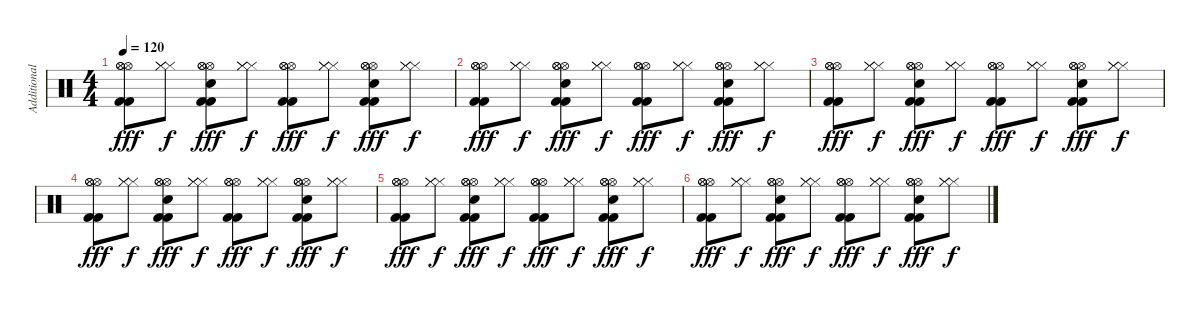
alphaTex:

\track ("Additional Rythm" "Additional") {instrument percussion}
\staff {score}
\articulation defaults
\ts (4 4)
\tempo 120
\clef neutral
\ks c
("Hi-Hat (open)" "Hi-Hat (open)" "Hi-Hat (open)" "Kick (hit) 2" "Kick (hit) 2").8{dy fff} ("Hi-Hat (closed)" "Hi-Hat (closed)" "Hi-Hat (closed)").8{dy f} ("Hi-Hat (open)" "Hi-Hat (open)" "Hi-Hat (open)" "Kick (hit) 2" "Kick (hit) 2" "Snare (hit) 2").8{dy fff} ("Hi-Hat (closed)" "Hi-Hat (closed)" "Hi-Hat (closed)").8{dy f} ("Hi-Hat (open)" "Hi-Hat (open)" "Hi-Hat (open)" "Kick (hit) 2" "Kick (hit) 2").8{dy fff} ("Hi-Hat (closed)" "Hi-Hat (closed)" "Hi-Hat (closed)").8{dy f} ("Hi-Hat (open)" "Hi-Hat (open)" "Hi-Hat (open)" "Kick (hit) 2" "Kick (hit) 2" "Snare (hit) 2").8{dy fff} ("Hi-Hat (closed)" "Hi-Hat (closed)" "Hi-Hat (closed)").8{dy f} |
("Hi-Hat (open)" "Hi-Hat (open)" "Hi-Hat (open)" "Kick (hit) 2" "Kick (hit) 2").8{dy fff} ("Hi-Hat (closed)" "Hi-Hat (closed)" "Hi-Hat (closed)").8{dy f} ("Hi-Hat (open)" "Hi-Hat (open)" "Hi-Hat (open)" "Kick (hit) 2" "Kick (hit) 2" "Snare (hit) 2").8{dy fff} ("Hi-Hat (closed)" "Hi-Hat (closed)" "Hi-Hat (closed)").8{dy f} ("Hi-Hat (open)" "Hi-Hat (open)" "Hi-Hat (open)" "Kick (hit) 2" "Kick (hit) 2").8{dy fff} ("Hi-Hat (closed)" "Hi-Hat (closed)" "Hi-Hat (closed)").8{dy f} ("Hi-Hat (open)" "Hi-Hat (open)" "Hi-Hat (open)" "Kick (hit) 2" "Kick (hit) 2" "Snare (hit) 2").8{dy fff} ("Hi-Hat (closed)" "Hi-Hat (closed)" "Hi-Hat (closed)").8{dy f} |
("Hi-Hat (open)" "Hi-Hat (open)" "Hi-Hat (open)" "Kick (hit) 2" "Kick (hit) 2").8{dy fff} ("Hi-Hat (closed)" "Hi-Hat (closed)" "Hi-Hat (closed)").8{dy f} ("Hi-Hat (open)" "Hi-Hat (open)" "Hi-Hat (open)" "Kick (hit) 2" "Kick (hit) 2" "Snare (hit) 2").8{dy fff} ("Hi-Hat (closed)" "Hi-Hat (closed)" "Hi-Hat (closed)").8{dy f} ("Hi-Hat (open)" "Hi-Hat (open)" "Hi-Hat (open)" "Kick (hit) 2" "Kick (hit) 2").8{dy fff} ("Hi-Hat (closed)" "Hi-Hat (closed)" "Hi-Hat (closed)").8{dy f} ("Hi-Hat (open)" "Hi-Hat (open)" "Hi-Hat (open)" "Kick (hit) 2" "Kick (hit) 2" "Snare (hit) 2").8{dy fff} ("Hi-Hat (closed)" "Hi-Hat (closed)" "Hi-Hat (closed)").8{dy f} |
("Hi-Hat (open)" "Hi-Hat (open)" "Hi-Hat (open)" "Kick (hit) 2" "Kick (hit) 2").8{dy fff} ("Hi-Hat (closed)" "Hi-Hat (closed)" "Hi-Hat (closed)").8{dy f} ("Hi-Hat (open)" "Hi-Hat (open)" "Hi-Hat (open)" "Kick (hit) 2" "Kick (hit) 2" "Snare (hit) 2").8{dy fff} ("Hi-Hat (closed)" "Hi-Hat (closed)" "Hi-Hat (closed)").8{dy f} ("Hi-Hat (open)" "Hi-Hat (open)" "Hi-Hat (open)" "Kick (hit) 2" "Kick (hit) 2").8{dy fff} ("Hi-Hat (closed)" "Hi-Hat (closed)" "Hi-Hat (closed)").8{dy f} ("Hi-Hat (open)" "Hi-Hat (open)" "Hi-Hat (open)" "Kick (hit) 2" "Kick (hit) 2" "Snare (hit) 2").8{dy fff} ("Hi-Hat (closed)" "Hi-Hat (closed)" "Hi-Hat (closed)").8{dy f} |
("Hi-Hat (open)" "Hi-Hat (open)" "Hi-Hat (open)" "Kick (hit) 2" "Kick (hit) 2").8{dy fff} ("Hi-Hat (closed)" "Hi-Hat (closed)" "Hi-Hat (closed)").8{dy f} ("Hi-Hat (open)" "Hi-Hat (open)" "Hi-Hat (open)" "Kick (hit) 2" "Kick (hit) 2" "Snare (hit) 2").8{dy fff} ("Hi-Hat (closed)" "Hi-Hat (closed)" "Hi-Hat (closed)").8{dy f} ("Hi-Hat (open)" "Hi-Hat (open)" "Hi-Hat (open)" "Kick (hit) 2" "Kick (hit) 2").8{dy fff} ("Hi-Hat (closed)" "Hi-Hat (closed)" "Hi-Hat (closed)").8{dy f} ("Hi-Hat (open)" "Hi-Hat (open)" "Hi-Hat (open)" "Kick (hit) 2" "Kick (hit) 2" "Snare (hit) 2").8{dy fff} ("Hi-Hat (closed)" "Hi-Hat (closed)" "Hi-Hat (closed)").8{dy f} |
("Hi-Hat (open)" "Hi-Hat (open)" "Hi-Hat (open)" "Kick (hit) 2" "Kick (hit) 2").8{dy fff} ("Hi-Hat (closed)" "Hi-Hat (closed)" "Hi-Hat (closed)").8{dy f} ("Hi-Hat (open)" "Hi-Hat (open)" "Hi-Hat (open)" "Kick (hit) 2" "Kick (hit) 2" "Snare (hit) 2").8{dy fff} ("Hi-Hat (closed)" "Hi-Hat (closed)" "Hi-Hat (closed)").8{dy f} ("Hi-Hat (open)" "Hi-Hat (open)" "Hi-Hat (open)" "Kick (hit) 2" "Kick (hit) 2").8{dy fff} ("Hi-Hat (closed)" "Hi-Hat (closed)" "Hi-Hat (closed)").8{dy f} ("Hi-Hat (open)" "Hi-Hat (open)" "Hi-Hat (open)" "Kick (hit) 2" "Kick (hit) 2" "Snare (hit) 2").8{dy fff} ("Hi-Hat (closed)" "Hi-Hat (closed)" "Hi-Hat (closed)").8{dy f}
